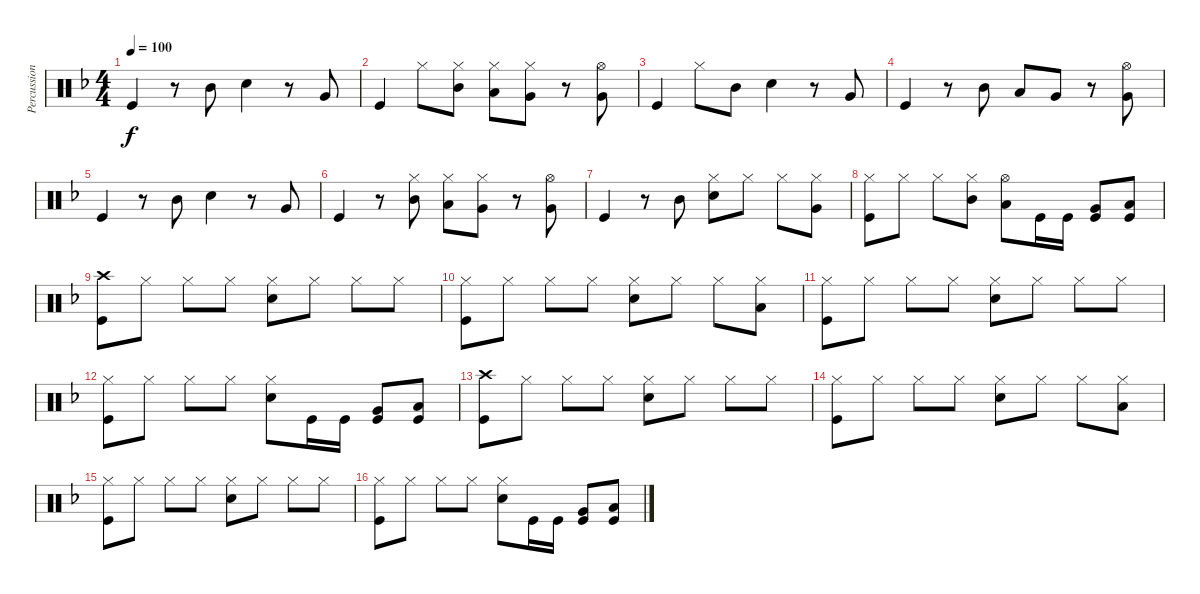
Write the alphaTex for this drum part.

\track ("Percussion" "Percussion") {instrument percussion}
\staff {score}
\articulation defaults
\ts (4 4)
\tempo 100
\clef neutral
\ks dminor "Kick (hit)".4{dy f}
r.8 "Mid Tom (hit)".8 "Snare (hit) 2".4 r.8 "Very Low Tom (hit)".8 |
"Kick (hit)".4 "Hi-Hat (closed)".8 ("Hi-Hat (closed)" "Mid Tom (hit)").8 ("Hi-Hat (closed)" "Low Tom (hit)").8 ("Hi-Hat (closed)" "Very Low Tom (hit)").8 r.8 ("Hi-Hat (open)" "Very Low Tom (hit)").8 |
"Kick (hit)".4 "Hi-Hat (closed)".8 "Mid Tom (hit)".8 "Snare (hit) 2".4 r.8 "Very Low Tom (hit)".8 |
"Kick (hit)".4 r.8 "Mid Tom (hit)".8 "Low Tom (hit)".8 "Very Low Tom (hit)".8 r.8 ("Hi-Hat (open)" "Very Low Tom (hit)").8 |
"Kick (hit)".4 r.8 "Mid Tom (hit)".8 "Snare (hit) 2".4 r.8 "Very Low Tom (hit)".8 |
"Kick (hit)".4 r.8 ("Hi-Hat (closed)" "Mid Tom (hit)").8 ("Hi-Hat (closed)" "Low Tom (hit)").8 ("Hi-Hat (closed)" "Very Low Tom (hit)").8 r.8 ("Hi-Hat (open)" "Very Low Tom (hit)").8 |
"Kick (hit)".4 r.8 "Mid Tom (hit)".8 ("Hi-Hat (closed)" "Snare (hit) 2").8 "Hi-Hat (closed)".8 "Hi-Hat (closed)".8 ("Hi-Hat (closed)" "Very Low Tom (hit)").8 |
("Hi-Hat (closed)" "Kick (hit)").8 "Hi-Hat (closed)".8 "Hi-Hat (closed)".8 ("Hi-Hat (closed)" "Mid Tom (hit)").8 ("Hi-Hat (open)" "Low Tom (hit)").8 "Kick (hit)".16 "Kick (hit)".16 ("Very Low Tom (hit)" "Kick (hit)").8 ("Low Tom (hit)" "Kick (hit)").8 |
("Crash high (hit)" "Kick (hit)").8 "Hi-Hat (closed)".8 "Hi-Hat (closed)".8 "Hi-Hat (closed)".8 ("Hi-Hat (closed)" "Snare (hit) 2").8 "Hi-Hat (closed)".8 "Hi-Hat (closed)".8 "Hi-Hat (closed)".8 |
("Hi-Hat (closed)" "Kick (hit)").8 "Hi-Hat (closed)".8 "Hi-Hat (closed)".8 "Hi-Hat (closed)".8 ("Hi-Hat (closed)" "Snare (hit) 2").8 "Hi-Hat (closed)".8 "Hi-Hat (closed)".8 ("Hi-Hat (closed)" "Low Tom (hit)").8 |
("Hi-Hat (closed)" "Kick (hit)").8 "Hi-Hat (closed)".8 "Hi-Hat (closed)".8 "Hi-Hat (closed)".8 ("Hi-Hat (closed)" "Snare (hit) 2").8 "Hi-Hat (closed)".8 "Hi-Hat (closed)".8 "Hi-Hat (closed)".8 |
("Hi-Hat (closed)" "Kick (hit)").8 "Hi-Hat (closed)".8 "Hi-Hat (closed)".8 "Hi-Hat (closed)".8 ("Hi-Hat (closed)" "Snare (hit) 2").8 "Kick (hit)".16 "Kick (hit)".16 ("Very Low Tom (hit)" "Kick (hit)").8 ("Low Tom (hit)" "Kick (hit)").8 |
("Crash high (hit)" "Kick (hit)").8 "Hi-Hat (closed)".8 "Hi-Hat (closed)".8 "Hi-Hat (closed)".8 ("Hi-Hat (closed)" "Snare (hit) 2").8 "Hi-Hat (closed)".8 "Hi-Hat (closed)".8 "Hi-Hat (closed)".8 |
("Hi-Hat (closed)" "Kick (hit)").8 "Hi-Hat (closed)".8 "Hi-Hat (closed)".8 "Hi-Hat (closed)".8 ("Hi-Hat (closed)" "Snare (hit) 2").8 "Hi-Hat (closed)".8 "Hi-Hat (closed)".8 ("Hi-Hat (closed)" "Low Tom (hit)").8 |
("Hi-Hat (closed)" "Kick (hit)").8 "Hi-Hat (closed)".8 "Hi-Hat (closed)".8 "Hi-Hat (closed)".8 ("Hi-Hat (closed)" "Snare (hit) 2").8 "Hi-Hat (closed)".8 "Hi-Hat (closed)".8 "Hi-Hat (closed)".8 |
("Hi-Hat (closed)" "Kick (hit)").8 "Hi-Hat (closed)".8 "Hi-Hat (closed)".8 "Hi-Hat (closed)".8 ("Hi-Hat (closed)" "Snare (hit) 2").8 "Kick (hit)".16 "Kick (hit)".16 ("Very Low Tom (hit)" "Kick (hit)").8 ("Low Tom (hit)" "Kick (hit)").8
